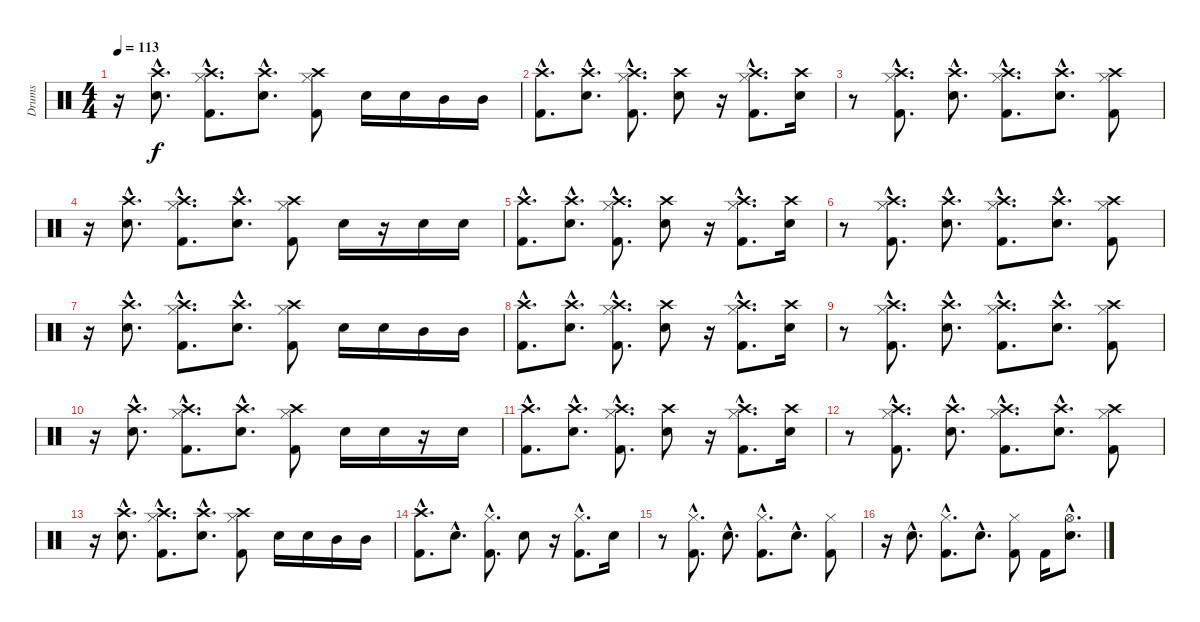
\track ("Drums" "Drums") {instrument percussion}
\staff {score}
\articulation defaults
\ts (4 4)
\tempo 113
\clef neutral
\ks c
r.16{dy f} ("Crash high (hit)"{hac} "Electric Snare (hit)"{hac}).8{d} ("Crash high (hit)"{hac} "Hi-Hat (closed)"{hac} "Kick (hit) 2"{hac}).8{d} ("Crash high (hit)"{hac} "Electric Snare (hit)"{hac}).8{d} ("Crash high (hit)" "Hi-Hat (closed)" "Kick (hit) 2").8 "Electric Snare (hit)".16 "Electric Snare (hit)".16 "Mid Tom (hit)".16 "Mid Tom (hit)".16 |
("Crash high (hit)"{hac} "Kick (hit) 2"{hac}).8{d} ("Crash high (hit)"{hac} "Electric Snare (hit)"{hac}).8{d} ("Crash high (hit)"{hac} "Hi-Hat (closed)"{hac} "Kick (hit) 2"{hac}).8{d} ("Crash high (hit)" "Electric Snare (hit)").8 r.16 ("Crash high (hit)"{hac} "Hi-Hat (closed)"{hac} "Kick (hit) 2"{hac}).8{d} ("Crash high (hit)" "Electric Snare (hit)").16 |
r.8 ("Crash high (hit)"{hac} "Hi-Hat (closed)"{hac} "Kick (hit) 2"{hac}).8{d} ("Crash high (hit)"{hac} "Electric Snare (hit)"{hac}).8{d} ("Crash high (hit)"{hac} "Hi-Hat (closed)"{hac} "Kick (hit) 2"{hac}).8{d} ("Crash high (hit)"{hac} "Electric Snare (hit)"{hac}).8{d} ("Crash high (hit)" "Hi-Hat (closed)" "Kick (hit) 2").8 |
r.16 ("Crash high (hit)"{hac} "Electric Snare (hit)"{hac}).8{d} ("Crash high (hit)"{hac} "Hi-Hat (closed)"{hac} "Kick (hit) 2"{hac}).8{d} ("Crash high (hit)"{hac} "Electric Snare (hit)"{hac}).8{d} ("Crash high (hit)" "Hi-Hat (closed)" "Kick (hit) 2").8 "Electric Snare (hit)".16 r.16 "Electric Snare (hit)".16 "Electric Snare (hit)".16 |
("Crash high (hit)"{hac} "Kick (hit) 2"{hac}).8{d} ("Crash high (hit)"{hac} "Electric Snare (hit)"{hac}).8{d} ("Crash high (hit)"{hac} "Hi-Hat (closed)"{hac} "Kick (hit) 2"{hac}).8{d} ("Crash high (hit)" "Electric Snare (hit)").8 r.16 ("Crash high (hit)"{hac} "Hi-Hat (closed)"{hac} "Kick (hit) 2"{hac}).8{d} ("Crash high (hit)" "Electric Snare (hit)").16 |
r.8 ("Crash high (hit)"{hac} "Hi-Hat (closed)"{hac} "Kick (hit) 2"{hac}).8{d} ("Crash high (hit)"{hac} "Electric Snare (hit)"{hac}).8{d} ("Crash high (hit)"{hac} "Hi-Hat (closed)"{hac} "Kick (hit) 2"{hac}).8{d} ("Crash high (hit)"{hac} "Electric Snare (hit)"{hac}).8{d} ("Crash high (hit)" "Hi-Hat (closed)" "Kick (hit) 2").8 |
r.16 ("Crash high (hit)"{hac} "Electric Snare (hit)"{hac}).8{d} ("Crash high (hit)"{hac} "Hi-Hat (closed)"{hac} "Kick (hit) 2"{hac}).8{d} ("Crash high (hit)"{hac} "Electric Snare (hit)"{hac}).8{d} ("Crash high (hit)" "Hi-Hat (closed)" "Kick (hit) 2").8 "Electric Snare (hit)".16 "Electric Snare (hit)".16 "Mid Tom (hit)".16 "Mid Tom (hit)".16 |
("Crash high (hit)"{hac} "Kick (hit) 2"{hac}).8{d} ("Crash high (hit)"{hac} "Electric Snare (hit)"{hac}).8{d} ("Crash high (hit)"{hac} "Hi-Hat (closed)"{hac} "Kick (hit) 2"{hac}).8{d} ("Crash high (hit)" "Electric Snare (hit)").8 r.16 ("Crash high (hit)"{hac} "Hi-Hat (closed)"{hac} "Kick (hit) 2"{hac}).8{d} ("Crash high (hit)" "Electric Snare (hit)").16 |
r.8 ("Crash high (hit)"{hac} "Hi-Hat (closed)"{hac} "Kick (hit) 2"{hac}).8{d} ("Crash high (hit)"{hac} "Electric Snare (hit)"{hac}).8{d} ("Crash high (hit)"{hac} "Hi-Hat (closed)"{hac} "Kick (hit) 2"{hac}).8{d} ("Crash high (hit)"{hac} "Electric Snare (hit)"{hac}).8{d} ("Crash high (hit)" "Hi-Hat (closed)" "Kick (hit) 2").8 |
r.16 ("Crash high (hit)"{hac} "Electric Snare (hit)"{hac}).8{d} ("Crash high (hit)"{hac} "Hi-Hat (closed)"{hac} "Kick (hit) 2"{hac}).8{d} ("Crash high (hit)"{hac} "Electric Snare (hit)"{hac}).8{d} ("Crash high (hit)" "Hi-Hat (closed)" "Kick (hit) 2").8 "Electric Snare (hit)".16 "Electric Snare (hit)".16 r.16 "Electric Snare (hit)".16 |
("Crash high (hit)"{hac} "Kick (hit) 2"{hac}).8{d} ("Crash high (hit)"{hac} "Electric Snare (hit)"{hac}).8{d} ("Crash high (hit)"{hac} "Hi-Hat (closed)"{hac} "Kick (hit) 2"{hac}).8{d} ("Crash high (hit)" "Electric Snare (hit)").8 r.16 ("Crash high (hit)"{hac} "Hi-Hat (closed)"{hac} "Kick (hit) 2"{hac}).8{d} ("Crash high (hit)" "Electric Snare (hit)").16 |
r.8 ("Crash high (hit)"{hac} "Hi-Hat (closed)"{hac} "Kick (hit) 2"{hac}).8{d} ("Crash high (hit)"{hac} "Electric Snare (hit)"{hac}).8{d} ("Crash high (hit)"{hac} "Hi-Hat (closed)"{hac} "Kick (hit) 2"{hac}).8{d} ("Crash high (hit)"{hac} "Electric Snare (hit)"{hac}).8{d} ("Crash high (hit)" "Hi-Hat (closed)" "Kick (hit) 2").8 |
r.16 ("Crash high (hit)"{hac} "Electric Snare (hit)"{hac}).8{d} ("Crash high (hit)"{hac} "Hi-Hat (closed)"{hac} "Kick (hit) 2"{hac}).8{d} ("Crash high (hit)"{hac} "Electric Snare (hit)"{hac}).8{d} ("Crash high (hit)" "Hi-Hat (closed)" "Kick (hit) 2").8 "Electric Snare (hit)".16 "Electric Snare (hit)".16 "Mid Tom (hit)".16 "Mid Tom (hit)".16 |
("Crash high (hit)"{hac} "Kick (hit) 2"{hac}).8{d} "Electric Snare (hit)"{hac}.8{d} ("Hi-Hat (closed)"{hac} "Kick (hit) 2"{hac}).8{d} "Electric Snare (hit)".8 r.16 ("Hi-Hat (closed)"{hac} "Kick (hit) 2"{hac}).8{d} "Electric Snare (hit)".16 |
r.8 ("Hi-Hat (closed)"{hac} "Kick (hit) 2"{hac}).8{d} "Electric Snare (hit)"{hac}.8{d} ("Hi-Hat (closed)"{hac} "Kick (hit) 2"{hac}).8{d} "Electric Snare (hit)"{hac}.8{d} ("Hi-Hat (closed)" "Kick (hit) 2").8 |
r.16 "Electric Snare (hit)"{hac}.8{d} ("Hi-Hat (closed)"{hac} "Kick (hit) 2"{hac}).8{d} "Electric Snare (hit)"{hac}.8{d} ("Hi-Hat (closed)" "Kick (hit) 2").8 "Kick (hit) 2".16 ("Hi-Hat (open)"{hac} "Electric Snare (hit)"{hac}).8{d}
